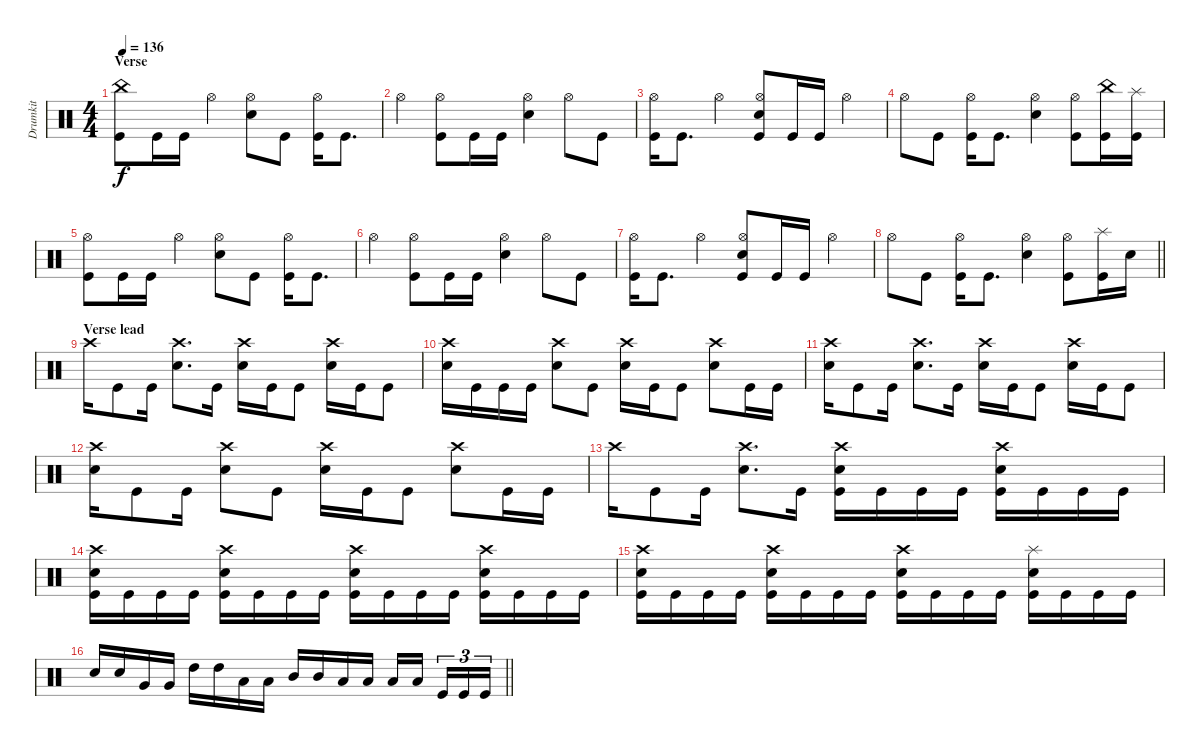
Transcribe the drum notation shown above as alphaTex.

\track ("Drumkit" "Drumkit") {instrument percussion}
\staff {score}
\articulation defaults
\ts (4 4)
\section ("" "Verse")
\tempo 136
\clef neutral
\ks c
("China (hit)" "Kick (hit)").8{dy f} "Kick (hit)".16 "Kick (hit)".16 "Hi-Hat (open)".4 ("Hi-Hat (open)" "Snare (hit) 2").8 "Kick (hit)".8 ("Kick (hit)" "Hi-Hat (open)").16 "Kick (hit)".8{d} |
"Hi-Hat (open)".4 ("Kick (hit)" "Hi-Hat (open)").8 "Kick (hit)".16 "Kick (hit)".16 ("Snare (hit) 2" "Hi-Hat (open)").4 "Hi-Hat (open)".8 "Kick (hit)".8 |
("Hi-Hat (open)" "Kick (hit)").16 "Kick (hit)".8{d} "Hi-Hat (open)".4 ("Hi-Hat (open)" "Kick (hit)" "Snare (hit) 2").8 "Kick (hit)".16 "Kick (hit)".16 "Hi-Hat (open)".4 |
"Hi-Hat (open)".8 "Kick (hit)".8 ("Kick (hit)" "Hi-Hat (open)").16 "Kick (hit)".8{d} ("Snare (hit) 2" "Hi-Hat (open)").4 ("Hi-Hat (open)" "Kick (hit)").8 ("Kick (hit)" "China (hit)").16 ("Kick (hit)" "Splash (hit)").16 |
("Kick (hit)" "Hi-Hat (open)").8 "Kick (hit)".16 "Kick (hit)".16 "Hi-Hat (open)".4 ("Hi-Hat (open)" "Snare (hit) 2").8 "Kick (hit)".8 ("Kick (hit)" "Hi-Hat (open)").16 "Kick (hit)".8{d} |
"Hi-Hat (open)".4 ("Kick (hit)" "Hi-Hat (open)").8 "Kick (hit)".16 "Kick (hit)".16 ("Snare (hit) 2" "Hi-Hat (open)").4 "Hi-Hat (open)".8 "Kick (hit)".8 |
("Hi-Hat (open)" "Kick (hit)").16 "Kick (hit)".8{d} "Hi-Hat (open)".4 ("Hi-Hat (open)" "Kick (hit)" "Snare (hit) 2").8 "Kick (hit)".16 "Kick (hit)".16 "Hi-Hat (open)".4 |
\barLineRight lightlight "Hi-Hat (open)".8 "Kick (hit)".8
("Kick (hit)" "Hi-Hat (open)").16 "Kick (hit)".8{d} ("Snare (hit) 2" "Hi-Hat (open)").4 ("Hi-Hat (open)" "Kick (hit)").8 ("Kick (hit)" "Splash (hit)").16 "Snare (hit) 2".16 |
\section ("" "Verse lead")
"Crash high (hit)".16 "Kick (hit)".8 "Kick (hit)".16 ("Snare (hit) 2" "Crash high (hit)").8{d} "Kick (hit)".16 ("Snare (hit) 2" "Crash high (hit)").16 "Kick (hit)".16 "Kick (hit)".8 ("Snare (hit) 2" "Crash high (hit)").16 "Kick (hit)".16 "Kick (hit)".8 |
("Snare (hit) 2" "Crash high (hit)").16 "Kick (hit)".16 "Kick (hit)".16 "Kick (hit)".16 ("Snare (hit) 2" "Crash high (hit)").8 "Kick (hit)".8 ("Snare (hit) 2" "Crash high (hit)").16 "Kick (hit)".16 "Kick (hit)".8 ("Snare (hit) 2" "Crash high (hit)").8 "Kick (hit)".16 "Kick (hit)".16 |
("Snare (hit) 2" "Crash high (hit)").16 "Kick (hit)".8 "Kick (hit)".16 ("Snare (hit) 2" "Crash high (hit)").8{d} "Kick (hit)".16 ("Snare (hit) 2" "Crash high (hit)").16 "Kick (hit)".16 "Kick (hit)".8 ("Snare (hit) 2" "Crash high (hit)").16 "Kick (hit)".16 "Kick (hit)".8 |
("Snare (hit) 2" "Crash high (hit)").16 "Kick (hit)".8 "Kick (hit)".16 ("Snare (hit) 2" "Crash high (hit)").8 "Kick (hit)".8 ("Snare (hit) 2" "Crash high (hit)").16 "Kick (hit)".16 "Kick (hit)".8 ("Snare (hit) 2" "Crash high (hit)").8 "Kick (hit)".16 "Kick (hit)".16 |
"Crash high (hit)".16 "Kick (hit)".8 "Kick (hit)".16 ("Snare (hit) 2" "Crash high (hit)").8{d} "Kick (hit)".16 ("Snare (hit) 2" "Crash high (hit)" "Kick (hit)").16 "Kick (hit)".16 "Kick (hit)".16 "Kick (hit)".16 ("Snare (hit) 2" "Crash high (hit)" "Kick (hit)").16 "Kick (hit)".16 "Kick (hit)".16 "Kick (hit)".16 |
("Snare (hit) 2" "Crash high (hit)" "Kick (hit)").16 "Kick (hit)".16 "Kick (hit)".16 "Kick (hit)".16 ("Snare (hit) 2" "Crash high (hit)" "Kick (hit)").16 "Kick (hit)".16 "Kick (hit)".16 "Kick (hit)".16 ("Snare (hit) 2" "Crash high (hit)" "Kick (hit)").16 "Kick (hit)".16 "Kick (hit)".16 "Kick (hit)".16 ("Snare (hit) 2" "Crash high (hit)" "Kick (hit)").16 "Kick (hit)".16 "Kick (hit)".16 "Kick (hit)".16 |
("Snare (hit) 2" "Crash high (hit)" "Kick (hit)").16 "Kick (hit)".16 "Kick (hit)".16 "Kick (hit)".16 ("Snare (hit) 2" "Crash high (hit)" "Kick (hit)").16 "Kick (hit)".16 "Kick (hit)".16 "Kick (hit)".16 ("Snare (hit) 2" "Crash high (hit)" "Kick (hit)").16 "Kick (hit)".16 "Kick (hit)".16 "Kick (hit)".16 ("Snare (hit) 2" "Kick (hit)" "Splash (hit)").16 "Kick (hit)".16 "Kick (hit)".16 "Kick (hit)".16 |
\barLineRight lightlight "Snare (hit) 2".16 "Snare (hit) 2".16 "Very Low Tom (hit)".16 "Very Low Tom (hit)".16 "High Tom (hit)".16 "High Tom (hit)".16 "Low Floor Tom (hit)".16 "Low Floor Tom (hit)".16 "Mid Tom (hit)".16 "Mid Tom (hit)".16 "Low Floor Tom (hit)".16 "Low Floor Tom (hit)".16 "Low Tom (hit)".16 "Low Tom (hit)".16{beam splitsecondary} "Kick (hit)".16{tu (3 2)} "Kick (hit)".16{tu (3 2)} "Kick (hit)".16{tu (3 2)}
